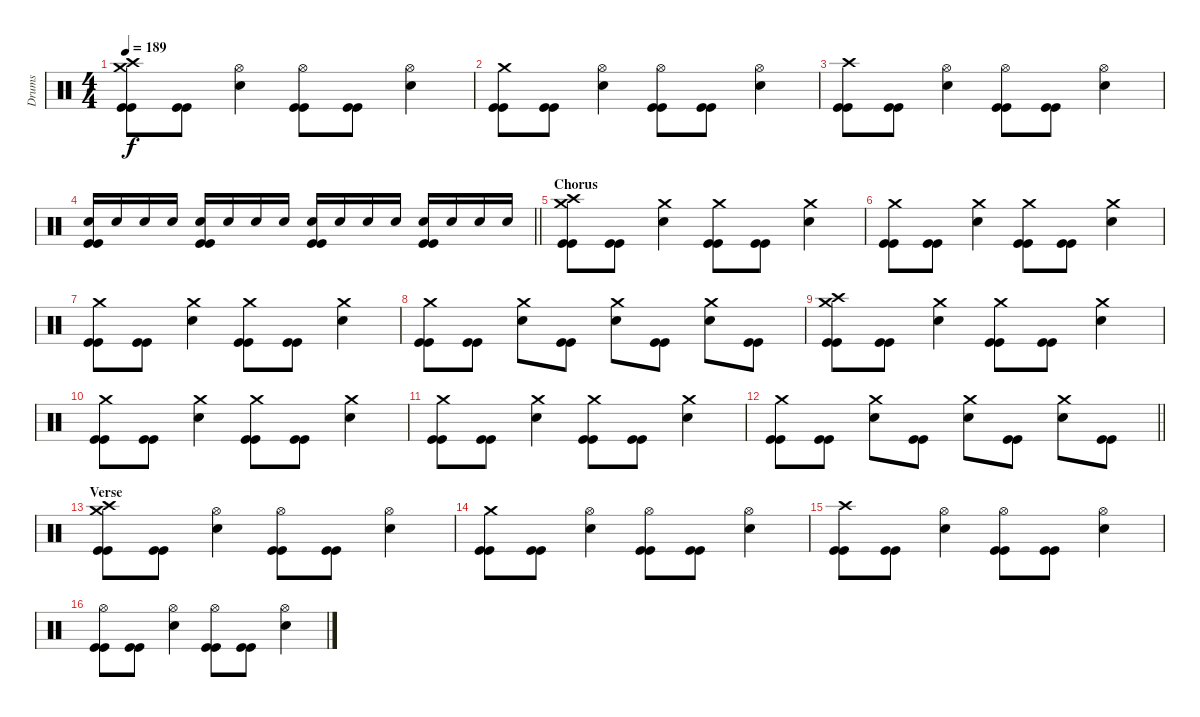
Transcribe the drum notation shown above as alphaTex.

\track ("Drums" "Drums") {instrument percussion}
\staff {score}
\articulation defaults
\ts (4 4)
\tempo 189
\clef neutral
\ks c
("Crash high (hit)" "Crash medium (hit)" "Kick (hit)" "Kick (hit)").8{dy f} ("Kick (hit)" "Kick (hit)").8 ("Hi-Hat (open)" "Electric Snare (hit)").4 ("Hi-Hat (open)" "Kick (hit)" "Kick (hit)").8 ("Kick (hit)" "Kick (hit)").8 ("Hi-Hat (open)" "Electric Snare (hit)").4 |
("Crash medium (hit)" "Kick (hit)" "Kick (hit)").8 ("Kick (hit)" "Kick (hit)").8 ("Hi-Hat (open)" "Electric Snare (hit)").4 ("Hi-Hat (open)" "Kick (hit)" "Kick (hit)").8 ("Kick (hit)" "Kick (hit)").8 ("Hi-Hat (open)" "Electric Snare (hit)").4 |
("Crash high (hit)" "Kick (hit)" "Kick (hit)").8 ("Kick (hit)" "Kick (hit)").8 ("Hi-Hat (open)" "Electric Snare (hit)").4 ("Hi-Hat (open)" "Kick (hit)" "Kick (hit)").8 ("Kick (hit)" "Kick (hit)").8 ("Hi-Hat (open)" "Electric Snare (hit)").4 |
\barLineRight lightlight
("Electric Snare (hit)" "Kick (hit)" "Kick (hit)").16 "Electric Snare (hit)".16 "Electric Snare (hit)".16 "Electric Snare (hit)".16 ("Electric Snare (hit)" "Kick (hit)" "Kick (hit)").16 "Electric Snare (hit)".16 "Electric Snare (hit)".16 "Electric Snare (hit)".16 ("Electric Snare (hit)" "Kick (hit)" "Kick (hit)").16 "Electric Snare (hit)".16 "Electric Snare (hit)".16 "Electric Snare (hit)".16 ("Electric Snare (hit)" "Kick (hit)" "Kick (hit)").16 "Electric Snare (hit)".16 "Electric Snare (hit)".16 "Electric Snare (hit)".16 |
\section ("" "Chorus")
("Crash high (hit)" "Crash medium (hit)" "Kick (hit)" "Kick (hit)").8 ("Kick (hit)" "Kick (hit)").8 ("Crash medium (hit)" "Electric Snare (hit)").4 ("Crash medium (hit)" "Kick (hit)" "Kick (hit)").8 ("Kick (hit)" "Kick (hit)").8 ("Crash medium (hit)" "Electric Snare (hit)").4 |
("Crash medium (hit)" "Kick (hit)" "Kick (hit)").8 ("Kick (hit)" "Kick (hit)").8 ("Crash medium (hit)" "Electric Snare (hit)").4 ("Crash medium (hit)" "Kick (hit)" "Kick (hit)").8 ("Kick (hit)" "Kick (hit)").8 ("Crash medium (hit)" "Electric Snare (hit)").4 |
("Crash medium (hit)" "Kick (hit)" "Kick (hit)").8 ("Kick (hit)" "Kick (hit)").8 ("Crash medium (hit)" "Electric Snare (hit)").4 ("Crash medium (hit)" "Kick (hit)" "Kick (hit)").8 ("Kick (hit)" "Kick (hit)").8 ("Crash medium (hit)" "Electric Snare (hit)").4 |
("Crash medium (hit)" "Kick (hit)" "Kick (hit)").8 ("Kick (hit)" "Kick (hit)").8 ("Crash medium (hit)" "Electric Snare (hit)").8 ("Kick (hit)" "Kick (hit)").8 ("Crash medium (hit)" "Electric Snare (hit)").8 ("Kick (hit)" "Kick (hit)").8 ("Crash medium (hit)" "Electric Snare (hit)").8 ("Kick (hit)" "Kick (hit)").8 |
("Crash high (hit)" "Crash medium (hit)" "Kick (hit)" "Kick (hit)").8 ("Kick (hit)" "Kick (hit)").8 ("Crash medium (hit)" "Electric Snare (hit)").4 ("Crash medium (hit)" "Kick (hit)" "Kick (hit)").8 ("Kick (hit)" "Kick (hit)").8 ("Crash medium (hit)" "Electric Snare (hit)").4 |
("Crash medium (hit)" "Kick (hit)" "Kick (hit)").8 ("Kick (hit)" "Kick (hit)").8 ("Crash medium (hit)" "Electric Snare (hit)").4 ("Crash medium (hit)" "Kick (hit)" "Kick (hit)").8 ("Kick (hit)" "Kick (hit)").8 ("Crash medium (hit)" "Electric Snare (hit)").4 |
("Crash medium (hit)" "Kick (hit)" "Kick (hit)").8 ("Kick (hit)" "Kick (hit)").8 ("Crash medium (hit)" "Electric Snare (hit)").4 ("Crash medium (hit)" "Kick (hit)" "Kick (hit)").8 ("Kick (hit)" "Kick (hit)").8 ("Crash medium (hit)" "Electric Snare (hit)").4 |
\barLineRight lightlight
("Crash medium (hit)" "Kick (hit)" "Kick (hit)").8 ("Kick (hit)" "Kick (hit)").8 ("Crash medium (hit)" "Electric Snare (hit)").8 ("Kick (hit)" "Kick (hit)").8 ("Crash medium (hit)" "Electric Snare (hit)").8 ("Kick (hit)" "Kick (hit)").8 ("Crash medium (hit)" "Electric Snare (hit)").8 ("Kick (hit)" "Kick (hit)").8 |
\section ("" "Verse")
("Crash high (hit)" "Crash medium (hit)" "Kick (hit)" "Kick (hit)").8 ("Kick (hit)" "Kick (hit)").8 ("Hi-Hat (open)" "Electric Snare (hit)").4 ("Hi-Hat (open)" "Kick (hit)" "Kick (hit)").8 ("Kick (hit)" "Kick (hit)").8 ("Hi-Hat (open)" "Electric Snare (hit)").4 |
("Crash medium (hit)" "Kick (hit)" "Kick (hit)").8 ("Kick (hit)" "Kick (hit)").8 ("Hi-Hat (open)" "Electric Snare (hit)").4 ("Hi-Hat (open)" "Kick (hit)" "Kick (hit)").8 ("Kick (hit)" "Kick (hit)").8 ("Hi-Hat (open)" "Electric Snare (hit)").4 |
("Crash high (hit)" "Kick (hit)" "Kick (hit)").8 ("Kick (hit)" "Kick (hit)").8 ("Hi-Hat (open)" "Electric Snare (hit)").4 ("Hi-Hat (open)" "Kick (hit)" "Kick (hit)").8 ("Kick (hit)" "Kick (hit)").8 ("Hi-Hat (open)" "Electric Snare (hit)").4 |
("Hi-Hat (open)" "Kick (hit)" "Kick (hit)").8 ("Kick (hit)" "Kick (hit)").8 ("Hi-Hat (open)" "Electric Snare (hit)").4 ("Hi-Hat (open)" "Kick (hit)" "Kick (hit)").8 ("Kick (hit)" "Kick (hit)").8 ("Hi-Hat (open)" "Electric Snare (hit)").4
